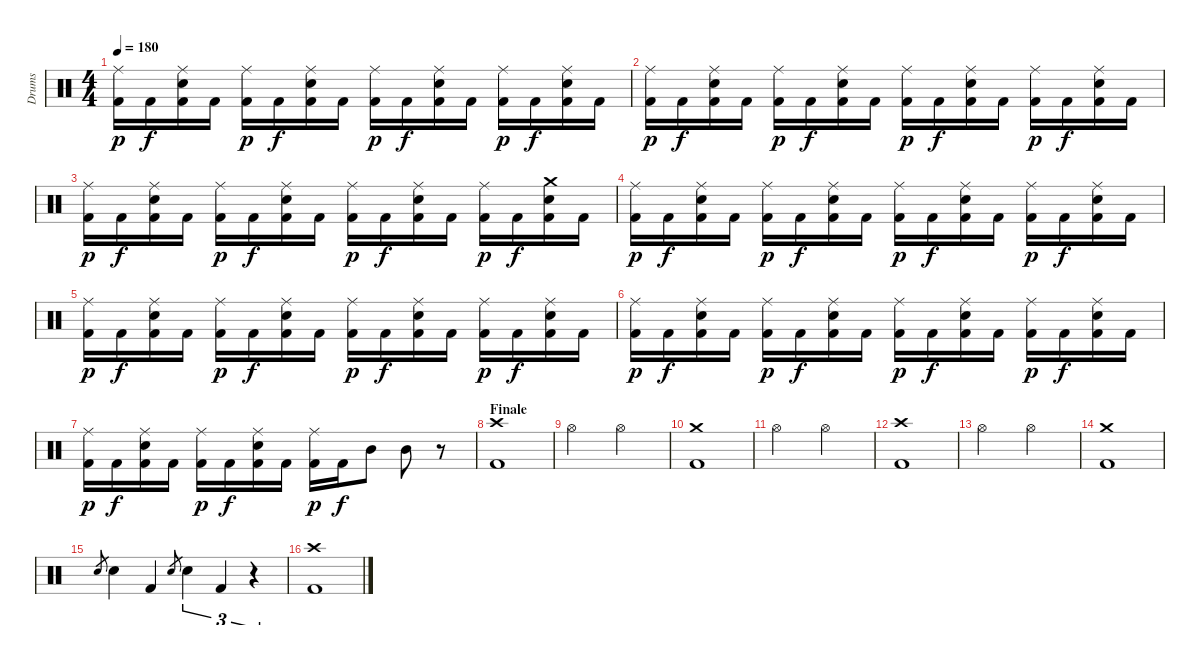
\track ("Drums" "Drums") {instrument percussion}
\staff {score}
\articulation defaults
\ts (4 4)
\tempo 180
\clef neutral
\ks c
("Ride (middle)" "Kick (hit) 2").16{dy p} "Kick (hit) 2".16{dy f} ("Ride (middle)" "Snare (hit) 2" "Kick (hit) 2").16 "Kick (hit) 2".16 ("Ride (middle)" "Kick (hit) 2").16{dy p} "Kick (hit) 2".16{dy f} ("Ride (middle)" "Snare (hit) 2" "Kick (hit) 2").16 "Kick (hit) 2".16 ("Ride (middle)" "Kick (hit) 2").16{dy p} "Kick (hit) 2".16{dy f} ("Ride (middle)" "Snare (hit) 2" "Kick (hit) 2").16 "Kick (hit) 2".16 ("Ride (middle)" "Kick (hit) 2").16{dy p} "Kick (hit) 2".16{dy f} ("Ride (middle)" "Snare (hit) 2" "Kick (hit) 2").16 "Kick (hit) 2".16 |
("Ride (middle)" "Kick (hit) 2").16{dy p} "Kick (hit) 2".16{dy f} ("Ride (middle)" "Snare (hit) 2" "Kick (hit) 2").16 "Kick (hit) 2".16 ("Ride (middle)" "Kick (hit) 2").16{dy p} "Kick (hit) 2".16{dy f} ("Ride (middle)" "Snare (hit) 2" "Kick (hit) 2").16 "Kick (hit) 2".16 ("Ride (middle)" "Kick (hit) 2").16{dy p} "Kick (hit) 2".16{dy f} ("Ride (middle)" "Snare (hit) 2" "Kick (hit) 2").16 "Kick (hit) 2".16 ("Ride (middle)" "Kick (hit) 2").16{dy p} "Kick (hit) 2".16{dy f} ("Ride (middle)" "Snare (hit) 2" "Kick (hit) 2").16 "Kick (hit) 2".16 |
("Ride (middle)" "Kick (hit) 2").16{dy p} "Kick (hit) 2".16{dy f} ("Ride (middle)" "Snare (hit) 2" "Kick (hit) 2").16 "Kick (hit) 2".16 ("Ride (middle)" "Kick (hit) 2").16{dy p} "Kick (hit) 2".16{dy f} ("Ride (middle)" "Snare (hit) 2" "Kick (hit) 2").16 "Kick (hit) 2".16 ("Ride (middle)" "Kick (hit) 2").16{dy p} "Kick (hit) 2".16{dy f} ("Ride (middle)" "Snare (hit) 2" "Kick (hit) 2").16 "Kick (hit) 2".16 ("Ride (middle)" "Kick (hit) 2").16{dy p} "Kick (hit) 2".16{dy f} ("Crash medium (hit)" "Snare (hit) 2" "Kick (hit) 2").16 "Kick (hit) 2".16 |
("Ride (middle)" "Kick (hit) 2").16{dy p} "Kick (hit) 2".16{dy f} ("Ride (middle)" "Snare (hit) 2" "Kick (hit) 2").16 "Kick (hit) 2".16 ("Ride (middle)" "Kick (hit) 2").16{dy p} "Kick (hit) 2".16{dy f} ("Ride (middle)" "Snare (hit) 2" "Kick (hit) 2").16 "Kick (hit) 2".16 ("Ride (middle)" "Kick (hit) 2").16{dy p} "Kick (hit) 2".16{dy f} ("Ride (middle)" "Snare (hit) 2" "Kick (hit) 2").16 "Kick (hit) 2".16 ("Ride (middle)" "Kick (hit) 2").16{dy p} "Kick (hit) 2".16{dy f} ("Ride (middle)" "Snare (hit) 2" "Kick (hit) 2").16 "Kick (hit) 2".16 |
("Ride (middle)" "Kick (hit) 2").16{dy p} "Kick (hit) 2".16{dy f} ("Ride (middle)" "Snare (hit) 2" "Kick (hit) 2").16 "Kick (hit) 2".16 ("Ride (middle)" "Kick (hit) 2").16{dy p} "Kick (hit) 2".16{dy f} ("Ride (middle)" "Snare (hit) 2" "Kick (hit) 2").16 "Kick (hit) 2".16 ("Ride (middle)" "Kick (hit) 2").16{dy p} "Kick (hit) 2".16{dy f} ("Ride (middle)" "Snare (hit) 2" "Kick (hit) 2").16 "Kick (hit) 2".16 ("Ride (middle)" "Kick (hit) 2").16{dy p} "Kick (hit) 2".16{dy f} ("Ride (middle)" "Snare (hit) 2" "Kick (hit) 2").16 "Kick (hit) 2".16 |
("Ride (middle)" "Kick (hit) 2").16{dy p} "Kick (hit) 2".16{dy f} ("Ride (middle)" "Snare (hit) 2" "Kick (hit) 2").16 "Kick (hit) 2".16 ("Ride (middle)" "Kick (hit) 2").16{dy p} "Kick (hit) 2".16{dy f} ("Ride (middle)" "Snare (hit) 2" "Kick (hit) 2").16 "Kick (hit) 2".16 ("Ride (middle)" "Kick (hit) 2").16{dy p} "Kick (hit) 2".16{dy f} ("Ride (middle)" "Snare (hit) 2" "Kick (hit) 2").16 "Kick (hit) 2".16 ("Ride (middle)" "Kick (hit) 2").16{dy p} "Kick (hit) 2".16{dy f} ("Ride (middle)" "Snare (hit) 2" "Kick (hit) 2").16 "Kick (hit) 2".16 |
("Ride (middle)" "Kick (hit) 2").16{dy p} "Kick (hit) 2".16{dy f} ("Ride (middle)" "Snare (hit) 2" "Kick (hit) 2").16 "Kick (hit) 2".16 ("Ride (middle)" "Kick (hit) 2").16{dy p} "Kick (hit) 2".16{dy f} ("Ride (middle)" "Snare (hit) 2" "Kick (hit) 2").16 "Kick (hit) 2".16 ("Ride (middle)" "Kick (hit) 2").16{dy p} "Kick (hit) 2".16{dy f} "Mid Tom (hit)".8 "Mid Tom (hit)".8 r.8 |
\section ("" "Finale")
("Crash high (hit)" "Kick (hit) 2").1 |
"Hi-Hat (open)".2 "Hi-Hat (open)".2 |
("Crash medium (hit)" "Kick (hit) 2").1 |
"Hi-Hat (open)".2 "Hi-Hat (open)".2 |
("Crash high (hit)" "Kick (hit) 2").1 |
"Hi-Hat (open)".2 "Hi-Hat (open)".2 |
("Crash medium (hit)" "Kick (hit) 2").1 |
"Snare (hit) 2".8{gr} "Snare (hit) 2".4 "Kick (hit) 2".4 "Snare (hit) 2".8{gr} "Snare (hit) 2".4{tu (3 2)} "Kick (hit) 2".4{tu (3 2)} r.4{tu (3 2)} |
("Crash high (hit)" "Kick (hit) 2").1
